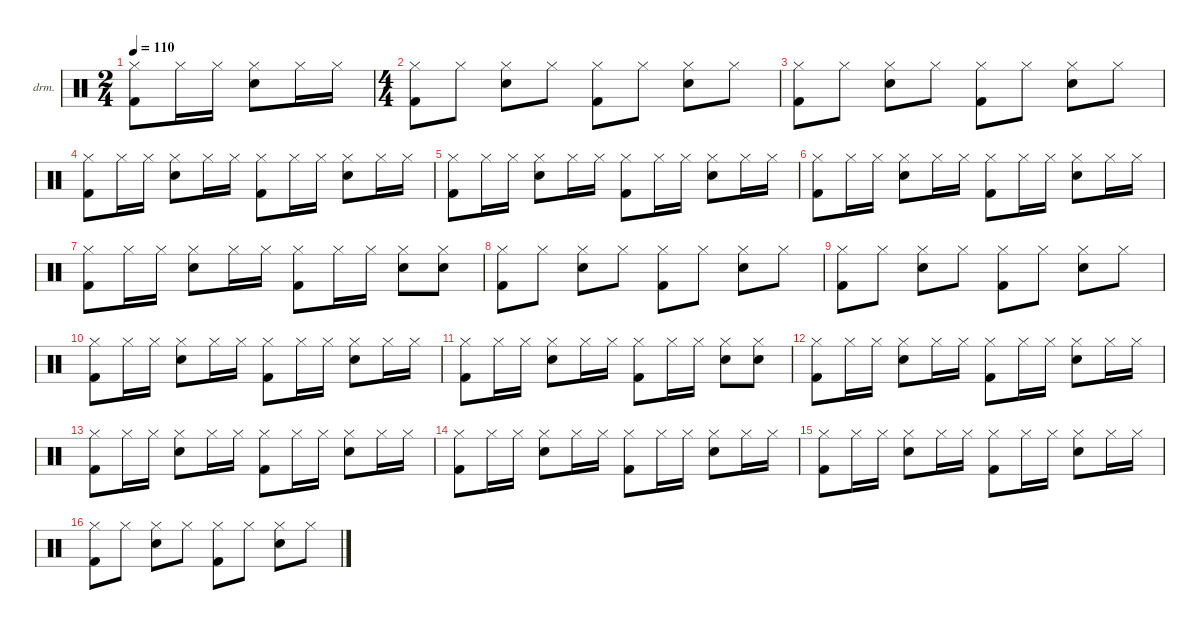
\hideDynamics
\bracketExtendMode nobrackets
\firstSystemTrackNameOrientation horizontal
\otherSystemsTrackNameOrientation horizontal
\track ("韩子钰" "drm.") {instrument percussion}
\staff {score}
\articulation defaults
\ts (2 4)
\beaming (8 2 2)
\tempo 110
\clef neutral
\ks c
("Hi-Hat (closed)" "Kick (hit) 2").8{dy f} "Hi-Hat (closed)".16 "Hi-Hat (closed)".16 ("Hi-Hat (closed)" "Snare (hit) 2").8 "Hi-Hat (closed)".16 "Hi-Hat (closed)".16 |
\ts (4 4)
\beaming (8 2 2 2 2)
("Hi-Hat (closed)" "Kick (hit) 2").8 "Hi-Hat (closed)".8 ("Hi-Hat (closed)" "Snare (hit) 2").8 "Hi-Hat (closed)".8 ("Hi-Hat (closed)" "Kick (hit) 2").8 "Hi-Hat (closed)".8 ("Hi-Hat (closed)" "Snare (hit) 2").8 "Hi-Hat (closed)".8 |
("Hi-Hat (closed)" "Kick (hit) 2").8 "Hi-Hat (closed)".8 ("Hi-Hat (closed)" "Snare (hit) 2").8 "Hi-Hat (closed)".8 ("Hi-Hat (closed)" "Kick (hit) 2").8 "Hi-Hat (closed)".8 ("Hi-Hat (closed)" "Snare (hit) 2").8 "Hi-Hat (closed)".8 |
("Hi-Hat (closed)" "Kick (hit) 2").8 "Hi-Hat (closed)".16 "Hi-Hat (closed)".16 ("Hi-Hat (closed)" "Snare (hit) 2").8 "Hi-Hat (closed)".16 "Hi-Hat (closed)".16 ("Hi-Hat (closed)" "Kick (hit) 2").8 "Hi-Hat (closed)".16 "Hi-Hat (closed)".16 ("Hi-Hat (closed)" "Snare (hit) 2").8 "Hi-Hat (closed)".16 "Hi-Hat (closed)".16 |
("Hi-Hat (closed)" "Kick (hit) 2").8 "Hi-Hat (closed)".16 "Hi-Hat (closed)".16 ("Hi-Hat (closed)" "Snare (hit) 2").8 "Hi-Hat (closed)".16 "Hi-Hat (closed)".16 ("Hi-Hat (closed)" "Kick (hit) 2").8 "Hi-Hat (closed)".16 "Hi-Hat (closed)".16 ("Hi-Hat (closed)" "Snare (hit) 2").8 "Hi-Hat (closed)".16 "Hi-Hat (closed)".16 |
("Hi-Hat (closed)" "Kick (hit) 2").8 "Hi-Hat (closed)".16 "Hi-Hat (closed)".16 ("Hi-Hat (closed)" "Snare (hit) 2").8 "Hi-Hat (closed)".16 "Hi-Hat (closed)".16 ("Hi-Hat (closed)" "Kick (hit) 2").8 "Hi-Hat (closed)".16 "Hi-Hat (closed)".16 ("Hi-Hat (closed)" "Snare (hit) 2").8 "Hi-Hat (closed)".16 "Hi-Hat (closed)".16 |
("Hi-Hat (closed)" "Kick (hit) 2").8 "Hi-Hat (closed)".16 "Hi-Hat (closed)".16 ("Hi-Hat (closed)" "Snare (hit) 2").8 "Hi-Hat (closed)".16 "Hi-Hat (closed)".16 ("Hi-Hat (closed)" "Kick (hit) 2").8 "Hi-Hat (closed)".16 "Hi-Hat (closed)".16 ("Hi-Hat (closed)" "Snare (hit) 2").8 ("Hi-Hat (closed)" "Snare (hit) 2").8 |
("Hi-Hat (closed)" "Kick (hit) 2").8 "Hi-Hat (closed)".8 ("Hi-Hat (closed)" "Snare (hit) 2").8 "Hi-Hat (closed)".8 ("Hi-Hat (closed)" "Kick (hit) 2").8 "Hi-Hat (closed)".8 ("Hi-Hat (closed)" "Snare (hit) 2").8 "Hi-Hat (closed)".8 |
("Hi-Hat (closed)" "Kick (hit) 2").8 "Hi-Hat (closed)".8 ("Hi-Hat (closed)" "Snare (hit) 2").8 "Hi-Hat (closed)".8 ("Hi-Hat (closed)" "Kick (hit) 2").8 "Hi-Hat (closed)".8 ("Hi-Hat (closed)" "Snare (hit) 2").8 "Hi-Hat (closed)".8 |
("Hi-Hat (closed)" "Kick (hit) 2").8 "Hi-Hat (closed)".16 "Hi-Hat (closed)".16 ("Hi-Hat (closed)" "Snare (hit) 2").8 "Hi-Hat (closed)".16 "Hi-Hat (closed)".16 ("Hi-Hat (closed)" "Kick (hit) 2").8 "Hi-Hat (closed)".16 "Hi-Hat (closed)".16 ("Hi-Hat (closed)" "Snare (hit) 2").8 "Hi-Hat (closed)".16 "Hi-Hat (closed)".16 |
("Hi-Hat (closed)" "Kick (hit) 2").8 "Hi-Hat (closed)".16 "Hi-Hat (closed)".16 ("Hi-Hat (closed)" "Snare (hit) 2").8 "Hi-Hat (closed)".16 "Hi-Hat (closed)".16 ("Hi-Hat (closed)" "Kick (hit) 2").8 "Hi-Hat (closed)".16 "Hi-Hat (closed)".16 ("Hi-Hat (closed)" "Snare (hit) 2").8 ("Hi-Hat (closed)" "Snare (hit) 2").8 |
("Hi-Hat (closed)" "Kick (hit) 2").8 "Hi-Hat (closed)".16 "Hi-Hat (closed)".16 ("Hi-Hat (closed)" "Snare (hit) 2").8 "Hi-Hat (closed)".16 "Hi-Hat (closed)".16 ("Hi-Hat (closed)" "Kick (hit) 2").8 "Hi-Hat (closed)".16 "Hi-Hat (closed)".16 ("Hi-Hat (closed)" "Snare (hit) 2").8 "Hi-Hat (closed)".16 "Hi-Hat (closed)".16 |
("Hi-Hat (closed)" "Kick (hit) 2").8 "Hi-Hat (closed)".16 "Hi-Hat (closed)".16 ("Hi-Hat (closed)" "Snare (hit) 2").8 "Hi-Hat (closed)".16 "Hi-Hat (closed)".16 ("Hi-Hat (closed)" "Kick (hit) 2").8 "Hi-Hat (closed)".16 "Hi-Hat (closed)".16 ("Hi-Hat (closed)" "Snare (hit) 2").8 "Hi-Hat (closed)".16 "Hi-Hat (closed)".16 |
("Hi-Hat (closed)" "Kick (hit) 2").8 "Hi-Hat (closed)".16 "Hi-Hat (closed)".16 ("Hi-Hat (closed)" "Snare (hit) 2").8 "Hi-Hat (closed)".16 "Hi-Hat (closed)".16 ("Hi-Hat (closed)" "Kick (hit) 2").8 "Hi-Hat (closed)".16 "Hi-Hat (closed)".16 ("Hi-Hat (closed)" "Snare (hit) 2").8 "Hi-Hat (closed)".16 "Hi-Hat (closed)".16 |
("Hi-Hat (closed)" "Kick (hit) 2").8 "Hi-Hat (closed)".16 "Hi-Hat (closed)".16 ("Hi-Hat (closed)" "Snare (hit) 2").8 "Hi-Hat (closed)".16 "Hi-Hat (closed)".16 ("Hi-Hat (closed)" "Kick (hit) 2").8 "Hi-Hat (closed)".16 "Hi-Hat (closed)".16 ("Hi-Hat (closed)" "Snare (hit) 2").8 "Hi-Hat (closed)".16 "Hi-Hat (closed)".16 |
("Hi-Hat (closed)" "Kick (hit) 2").8 "Hi-Hat (closed)".8 ("Hi-Hat (closed)" "Snare (hit) 2").8 "Hi-Hat (closed)".8 ("Hi-Hat (closed)" "Kick (hit) 2").8 "Hi-Hat (closed)".8 ("Hi-Hat (closed)" "Snare (hit) 2").8 "Hi-Hat (closed)".8
